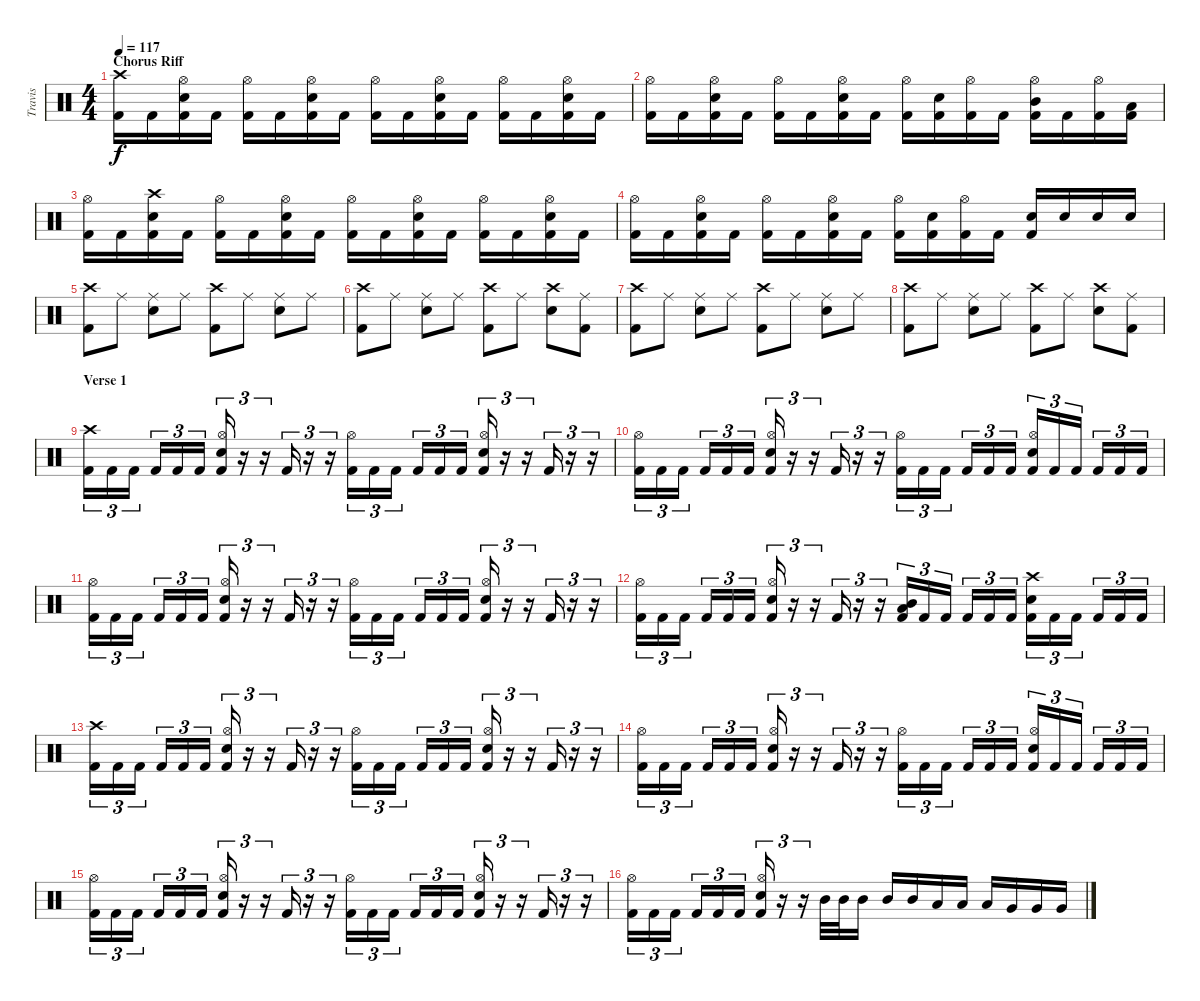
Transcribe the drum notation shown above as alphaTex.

\track ("Travis" "Travis") {instrument percussion}
\staff {score}
\articulation defaults
\ts (4 4)
\section ("" "Chorus Riff")
\tempo 117
\clef neutral
\ks c
("Crash high (hit)" "Kick (hit) 2").16{dy f} "Kick (hit) 2".16 ("Hi-Hat (open)" "Electric Snare (hit)" "Kick (hit) 2").16 "Kick (hit) 2".16 ("Hi-Hat (open)" "Kick (hit) 2").16 "Kick (hit) 2".16 ("Hi-Hat (open)" "Electric Snare (hit)" "Kick (hit) 2").16 "Kick (hit) 2".16 ("Hi-Hat (open)" "Kick (hit) 2").16 "Kick (hit) 2".16 ("Hi-Hat (open)" "Electric Snare (hit)" "Kick (hit) 2").16 "Kick (hit) 2".16 ("Hi-Hat (open)" "Kick (hit) 2").16 "Kick (hit) 2".16 ("Hi-Hat (open)" "Electric Snare (hit)" "Kick (hit) 2").16 "Kick (hit) 2".16 |
("Hi-Hat (open)" "Kick (hit) 2").16 "Kick (hit) 2".16 ("Hi-Hat (open)" "Electric Snare (hit)" "Kick (hit) 2").16 "Kick (hit) 2".16 ("Hi-Hat (open)" "Kick (hit) 2").16 "Kick (hit) 2".16 ("Hi-Hat (open)" "Electric Snare (hit)" "Kick (hit) 2").16 "Kick (hit) 2".16 ("Hi-Hat (open)" "Kick (hit) 2").16 ("Electric Snare (hit)" "Kick (hit) 2").16 ("Hi-Hat (open)" "Kick (hit) 2").16 "Kick (hit) 2".16 ("Hi-Hat (open)" "Mid Tom (hit)" "Kick (hit) 2").16 "Kick (hit) 2".16 ("Hi-Hat (open)" "Kick (hit) 2").16 ("Low Tom (hit)" "Kick (hit) 2").16 |
("Hi-Hat (open)" "Kick (hit) 2").16 "Kick (hit) 2".16 ("Crash high (hit)" "Electric Snare (hit)" "Kick (hit) 2").16 "Kick (hit) 2".16 ("Hi-Hat (open)" "Kick (hit) 2").16 "Kick (hit) 2".16 ("Hi-Hat (open)" "Electric Snare (hit)" "Kick (hit) 2").16 "Kick (hit) 2".16 ("Hi-Hat (open)" "Kick (hit) 2").16 "Kick (hit) 2".16 ("Hi-Hat (open)" "Electric Snare (hit)" "Kick (hit) 2").16 "Kick (hit) 2".16 ("Hi-Hat (open)" "Kick (hit) 2").16 "Kick (hit) 2".16 ("Hi-Hat (open)" "Electric Snare (hit)" "Kick (hit) 2").16 "Kick (hit) 2".16 |
("Hi-Hat (open)" "Kick (hit) 2").16 "Kick (hit) 2".16 ("Hi-Hat (open)" "Electric Snare (hit)" "Kick (hit) 2").16 "Kick (hit) 2".16 ("Hi-Hat (open)" "Kick (hit) 2").16 "Kick (hit) 2".16 ("Hi-Hat (open)" "Electric Snare (hit)" "Kick (hit) 2").16 "Kick (hit) 2".16 ("Hi-Hat (open)" "Kick (hit) 2").16 ("Electric Snare (hit)" "Kick (hit) 2").16 ("Hi-Hat (open)" "Kick (hit) 2").16 "Kick (hit) 2".16 ("Electric Snare (hit)" "Kick (hit) 2").16 "Electric Snare (hit)".16 "Electric Snare (hit)".16 "Electric Snare (hit)".16 |
("Crash high (hit)" "Kick (hit) 2").8 "Ride (middle)".8 ("Ride (middle)" "Electric Snare (hit)").8 "Ride (middle)".8 ("Crash high (hit)" "Kick (hit) 2").8 "Ride (middle)".8 ("Ride (middle)" "Electric Snare (hit)").8 "Ride (middle)".8 |
("Crash high (hit)" "Kick (hit) 2").8 "Ride (middle)".8 ("Ride (middle)" "Electric Snare (hit)").8 "Ride (middle)".8 ("Crash high (hit)" "Kick (hit) 2").8 "Ride (middle)".8 ("Crash high (hit)" "Electric Snare (hit)").8 ("Ride (middle)" "Kick (hit) 2").8 |
("Crash high (hit)" "Kick (hit) 2").8 "Ride (middle)".8 ("Ride (middle)" "Electric Snare (hit)").8 "Ride (middle)".8 ("Crash high (hit)" "Kick (hit) 2").8 "Ride (middle)".8 ("Ride (middle)" "Electric Snare (hit)").8 "Ride (middle)".8 |
("Crash high (hit)" "Kick (hit) 2").8 "Ride (middle)".8 ("Ride (middle)" "Electric Snare (hit)").8 "Ride (middle)".8 ("Crash high (hit)" "Kick (hit) 2").8 "Ride (middle)".8 ("Crash high (hit)" "Electric Snare (hit)").8 ("Ride (middle)" "Kick (hit) 2").8 |
\section ("" "Verse 1")
("Crash high (hit)" "Kick (hit) 2").16{tu (3 2)} "Kick (hit) 2".16{tu (3 2)} "Kick (hit) 2".16{tu (3 2)} "Kick (hit) 2".16{tu (3 2)} "Kick (hit) 2".16{tu (3 2)} "Kick (hit) 2".16{tu (3 2)} ("Hi-Hat (open)" "Electric Snare (hit)" "Kick (hit) 2").16{tu (3 2)} r.16{tu (3 2)} r.16{tu (3 2)} "Kick (hit) 2".16{tu (3 2)} r.16{tu (3 2)} r.16{tu (3 2)} ("Hi-Hat (open)" "Kick (hit) 2").16{tu (3 2)} "Kick (hit) 2".16{tu (3 2)} "Kick (hit) 2".16{tu (3 2)} "Kick (hit) 2".16{tu (3 2)} "Kick (hit) 2".16{tu (3 2)} "Kick (hit) 2".16{tu (3 2)} ("Hi-Hat (open)" "Electric Snare (hit)" "Kick (hit) 2").16{tu (3 2)} r.16{tu (3 2)} r.16{tu (3 2)} "Kick (hit) 2".16{tu (3 2)} r.16{tu (3 2)} r.16{tu (3 2)} |
("Hi-Hat (open)" "Kick (hit) 2").16{tu (3 2)} "Kick (hit) 2".16{tu (3 2)} "Kick (hit) 2".16{tu (3 2)} "Kick (hit) 2".16{tu (3 2)} "Kick (hit) 2".16{tu (3 2)} "Kick (hit) 2".16{tu (3 2)} ("Hi-Hat (open)" "Electric Snare (hit)" "Kick (hit) 2").16{tu (3 2)} r.16{tu (3 2)} r.16{tu (3 2)} "Kick (hit) 2".16{tu (3 2)} r.16{tu (3 2)} r.16{tu (3 2)} ("Hi-Hat (open)" "Kick (hit) 2").16{tu (3 2)} "Kick (hit) 2".16{tu (3 2)} "Kick (hit) 2".16{tu (3 2)} "Kick (hit) 2".16{tu (3 2)} "Kick (hit) 2".16{tu (3 2)} "Kick (hit) 2".16{tu (3 2)} ("Hi-Hat (open)" "Electric Snare (hit)" "Kick (hit) 2").16{tu (3 2)} "Kick (hit) 2".16{tu (3 2)} "Kick (hit) 2".16{tu (3 2)} "Kick (hit) 2".16{tu (3 2)} "Kick (hit) 2".16{tu (3 2)} "Kick (hit) 2".16{tu (3 2)} |
("Hi-Hat (open)" "Kick (hit) 2").16{tu (3 2)} "Kick (hit) 2".16{tu (3 2)} "Kick (hit) 2".16{tu (3 2)} "Kick (hit) 2".16{tu (3 2)} "Kick (hit) 2".16{tu (3 2)} "Kick (hit) 2".16{tu (3 2)} ("Hi-Hat (open)" "Electric Snare (hit)" "Kick (hit) 2").16{tu (3 2)} r.16{tu (3 2)} r.16{tu (3 2)} "Kick (hit) 2".16{tu (3 2)} r.16{tu (3 2)} r.16{tu (3 2)} ("Hi-Hat (open)" "Kick (hit) 2").16{tu (3 2)} "Kick (hit) 2".16{tu (3 2)} "Kick (hit) 2".16{tu (3 2)} "Kick (hit) 2".16{tu (3 2)} "Kick (hit) 2".16{tu (3 2)} "Kick (hit) 2".16{tu (3 2)} ("Hi-Hat (open)" "Electric Snare (hit)" "Kick (hit) 2").16{tu (3 2)} r.16{tu (3 2)} r.16{tu (3 2)} "Kick (hit) 2".16{tu (3 2)} r.16{tu (3 2)} r.16{tu (3 2)} |
("Hi-Hat (open)" "Kick (hit) 2").16{tu (3 2)} "Kick (hit) 2".16{tu (3 2)} "Kick (hit) 2".16{tu (3 2)} "Kick (hit) 2".16{tu (3 2)} "Kick (hit) 2".16{tu (3 2)} "Kick (hit) 2".16{tu (3 2)} ("Hi-Hat (open)" "Electric Snare (hit)" "Kick (hit) 2").16{tu (3 2)} r.16{tu (3 2)} r.16{tu (3 2)} "Kick (hit) 2".16{tu (3 2)} r.16{tu (3 2)} r.16{tu (3 2)} ("Mid Tom (hit)" "Low Floor Tom (hit)" "Kick (hit) 2").16{tu (3 2)} "Kick (hit) 2".16{tu (3 2)} "Kick (hit) 2".16{tu (3 2)} "Kick (hit) 2".16{tu (3 2)} "Kick (hit) 2".16{tu (3 2)} "Kick (hit) 2".16{tu (3 2)} ("Crash high (hit)" "Electric Snare (hit)" "Kick (hit) 2").16{tu (3 2)} "Kick (hit) 2".16{tu (3 2)} "Kick (hit) 2".16{tu (3 2)} "Kick (hit) 2".16{tu (3 2)} "Kick (hit) 2".16{tu (3 2)} "Kick (hit) 2".16{tu (3 2)} |
("Crash high (hit)" "Kick (hit) 2").16{tu (3 2)} "Kick (hit) 2".16{tu (3 2)} "Kick (hit) 2".16{tu (3 2)} "Kick (hit) 2".16{tu (3 2)} "Kick (hit) 2".16{tu (3 2)} "Kick (hit) 2".16{tu (3 2)} ("Hi-Hat (open)" "Electric Snare (hit)" "Kick (hit) 2").16{tu (3 2)} r.16{tu (3 2)} r.16{tu (3 2)} "Kick (hit) 2".16{tu (3 2)} r.16{tu (3 2)} r.16{tu (3 2)} ("Hi-Hat (open)" "Kick (hit) 2").16{tu (3 2)} "Kick (hit) 2".16{tu (3 2)} "Kick (hit) 2".16{tu (3 2)} "Kick (hit) 2".16{tu (3 2)} "Kick (hit) 2".16{tu (3 2)} "Kick (hit) 2".16{tu (3 2)} ("Hi-Hat (open)" "Electric Snare (hit)" "Kick (hit) 2").16{tu (3 2)} r.16{tu (3 2)} r.16{tu (3 2)} "Kick (hit) 2".16{tu (3 2)} r.16{tu (3 2)} r.16{tu (3 2)} |
("Hi-Hat (open)" "Kick (hit) 2").16{tu (3 2)} "Kick (hit) 2".16{tu (3 2)} "Kick (hit) 2".16{tu (3 2)} "Kick (hit) 2".16{tu (3 2)} "Kick (hit) 2".16{tu (3 2)} "Kick (hit) 2".16{tu (3 2)} ("Hi-Hat (open)" "Electric Snare (hit)" "Kick (hit) 2").16{tu (3 2)} r.16{tu (3 2)} r.16{tu (3 2)} "Kick (hit) 2".16{tu (3 2)} r.16{tu (3 2)} r.16{tu (3 2)} ("Hi-Hat (open)" "Kick (hit) 2").16{tu (3 2)} "Kick (hit) 2".16{tu (3 2)} "Kick (hit) 2".16{tu (3 2)} "Kick (hit) 2".16{tu (3 2)} "Kick (hit) 2".16{tu (3 2)} "Kick (hit) 2".16{tu (3 2)} ("Hi-Hat (open)" "Electric Snare (hit)" "Kick (hit) 2").16{tu (3 2)} "Kick (hit) 2".16{tu (3 2)} "Kick (hit) 2".16{tu (3 2)} "Kick (hit) 2".16{tu (3 2)} "Kick (hit) 2".16{tu (3 2)} "Kick (hit) 2".16{tu (3 2)} |
("Hi-Hat (open)" "Kick (hit) 2").16{tu (3 2)} "Kick (hit) 2".16{tu (3 2)} "Kick (hit) 2".16{tu (3 2)} "Kick (hit) 2".16{tu (3 2)} "Kick (hit) 2".16{tu (3 2)} "Kick (hit) 2".16{tu (3 2)} ("Hi-Hat (open)" "Electric Snare (hit)" "Kick (hit) 2").16{tu (3 2)} r.16{tu (3 2)} r.16{tu (3 2)} "Kick (hit) 2".16{tu (3 2)} r.16{tu (3 2)} r.16{tu (3 2)} ("Hi-Hat (open)" "Kick (hit) 2").16{tu (3 2)} "Kick (hit) 2".16{tu (3 2)} "Kick (hit) 2".16{tu (3 2)} "Kick (hit) 2".16{tu (3 2)} "Kick (hit) 2".16{tu (3 2)} "Kick (hit) 2".16{tu (3 2)} ("Hi-Hat (open)" "Electric Snare (hit)" "Kick (hit) 2").16{tu (3 2)} r.16{tu (3 2)} r.16{tu (3 2)} "Kick (hit) 2".16{tu (3 2)} r.16{tu (3 2)} r.16{tu (3 2)} |
("Hi-Hat (open)" "Kick (hit) 2").16{tu (3 2)} "Kick (hit) 2".16{tu (3 2)} "Kick (hit) 2".16{tu (3 2)} "Kick (hit) 2".16{tu (3 2)} "Kick (hit) 2".16{tu (3 2)} "Kick (hit) 2".16{tu (3 2)} ("Hi-Hat (open)" "Electric Snare (hit)" "Kick (hit) 2").16{tu (3 2)} r.16{tu (3 2)} r.16{tu (3 2)} "Mid Tom (hit)".32 "Mid Tom (hit)".32 "Mid Tom (hit)".16 "Mid Tom (hit)".16 "Mid Tom (hit)".16 "Low Tom (hit)".16 "Low Tom (hit)".16 "Low Tom (hit)".16 "Very Low Tom (hit)".16 "Very Low Tom (hit)".16 "Very Low Tom (hit)".16
